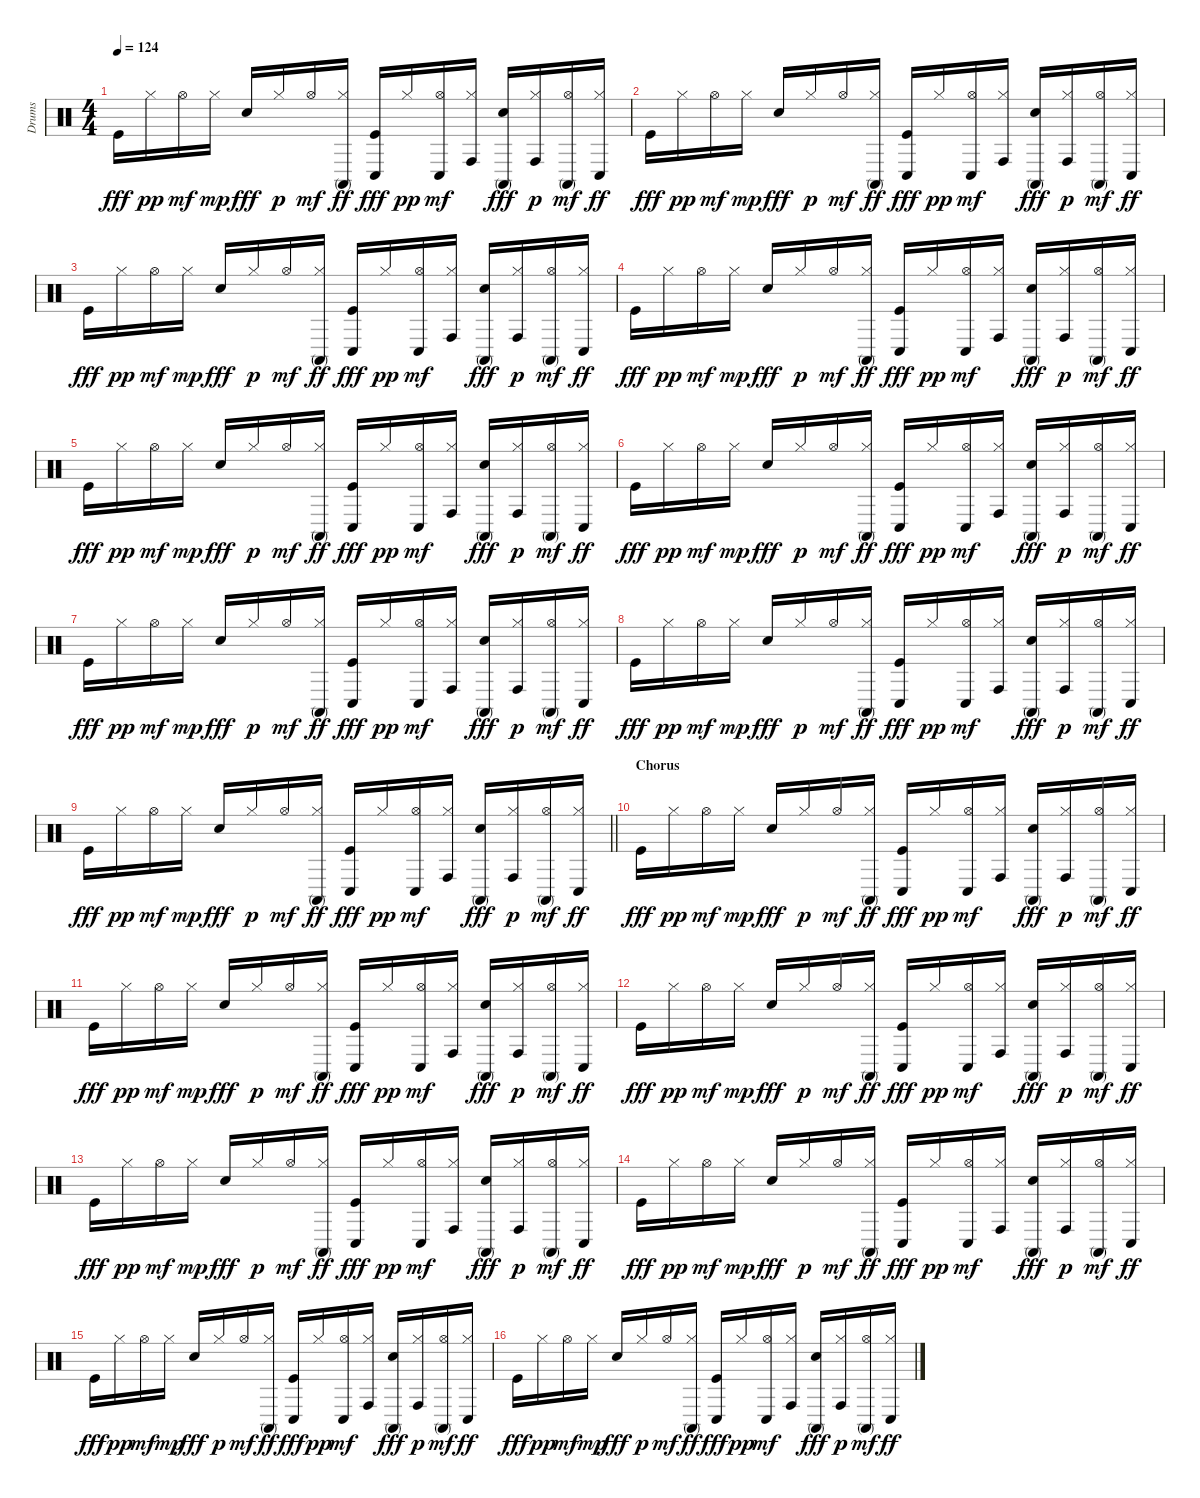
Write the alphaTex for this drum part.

\track ("Drums" "Drums") {instrument percussion}
\staff {score}
\articulation defaults
\ts (4 4)
\tempo 124
\clef neutral
\ks c "Kick (hit)".16{dy fff} "Hi-Hat (closed)".16{dy pp} "Hi-Hat (open)".16{dy mf} "Hi-Hat (closed)".16{dy mp} "Electric Snare (hit)".16{dy fff} "Hi-Hat (closed)".16{dy p} "Hi-Hat (open)".16{dy mf}
("Conga high (mute)" "Hi-Hat (closed)").16{dy ff} ("Kick (hit)" "Conga low (hit)").16{dy fff} "Hi-Hat (closed)".16{dy pp} ("Conga low (hit)" "Hi-Hat (open)").16{dy mf} ("Conga high (hit)" "Hi-Hat (closed)").16 ("Electric Snare (hit)" "Conga high (mute)").16{dy fff} ("Conga high (hit)" "Hi-Hat (closed)").16{dy p} ("Conga high (mute)" "Hi-Hat (open)").16{dy mf} ("Conga low (hit)" "Hi-Hat (closed)").16{dy ff} |
"Kick (hit)".16{dy fff} "Hi-Hat (closed)".16{dy pp} "Hi-Hat (open)".16{dy mf} "Hi-Hat (closed)".16{dy mp} "Electric Snare (hit)".16{dy fff} "Hi-Hat (closed)".16{dy p} "Hi-Hat (open)".16{dy mf} ("Conga high (mute)" "Hi-Hat (closed)").16{dy ff} ("Kick (hit)" "Conga low (hit)").16{dy fff} "Hi-Hat (closed)".16{dy pp} ("Conga low (hit)" "Hi-Hat (open)").16{dy mf} ("Conga high (hit)" "Hi-Hat (closed)").16 ("Electric Snare (hit)" "Conga high (mute)").16{dy fff} ("Conga high (hit)" "Hi-Hat (closed)").16{dy p} ("Conga high (mute)" "Hi-Hat (open)").16{dy mf} ("Conga low (hit)" "Hi-Hat (closed)").16{dy ff} |
"Kick (hit)".16{dy fff} "Hi-Hat (closed)".16{dy pp} "Hi-Hat (open)".16{dy mf} "Hi-Hat (closed)".16{dy mp} "Electric Snare (hit)".16{dy fff} "Hi-Hat (closed)".16{dy p} "Hi-Hat (open)".16{dy mf} ("Conga high (mute)" "Hi-Hat (closed)").16{dy ff} ("Kick (hit)" "Conga low (hit)").16{dy fff} "Hi-Hat (closed)".16{dy pp} ("Conga low (hit)" "Hi-Hat (open)").16{dy mf} ("Conga high (hit)" "Hi-Hat (closed)").16 ("Electric Snare (hit)" "Conga high (mute)").16{dy fff} ("Conga high (hit)" "Hi-Hat (closed)").16{dy p} ("Conga high (mute)" "Hi-Hat (open)").16{dy mf} ("Conga low (hit)" "Hi-Hat (closed)").16{dy ff} |
"Kick (hit)".16{dy fff} "Hi-Hat (closed)".16{dy pp} "Hi-Hat (open)".16{dy mf} "Hi-Hat (closed)".16{dy mp} "Electric Snare (hit)".16{dy fff} "Hi-Hat (closed)".16{dy p} "Hi-Hat (open)".16{dy mf} ("Conga high (mute)" "Hi-Hat (closed)").16{dy ff} ("Kick (hit)" "Conga low (hit)").16{dy fff} "Hi-Hat (closed)".16{dy pp} ("Conga low (hit)" "Hi-Hat (open)").16{dy mf} ("Conga high (hit)" "Hi-Hat (closed)").16 ("Electric Snare (hit)" "Conga high (mute)").16{dy fff} ("Conga high (hit)" "Hi-Hat (closed)").16{dy p} ("Conga high (mute)" "Hi-Hat (open)").16{dy mf} ("Conga low (hit)" "Hi-Hat (closed)").16{dy ff} |
"Kick (hit)".16{dy fff} "Hi-Hat (closed)".16{dy pp} "Hi-Hat (open)".16{dy mf} "Hi-Hat (closed)".16{dy mp} "Electric Snare (hit)".16{dy fff} "Hi-Hat (closed)".16{dy p} "Hi-Hat (open)".16{dy mf} ("Conga high (mute)" "Hi-Hat (closed)").16{dy ff} ("Kick (hit)" "Conga low (hit)").16{dy fff} "Hi-Hat (closed)".16{dy pp} ("Conga low (hit)" "Hi-Hat (open)").16{dy mf} ("Conga high (hit)" "Hi-Hat (closed)").16 ("Electric Snare (hit)" "Conga high (mute)").16{dy fff} ("Conga high (hit)" "Hi-Hat (closed)").16{dy p} ("Conga high (mute)" "Hi-Hat (open)").16{dy mf} ("Conga low (hit)" "Hi-Hat (closed)").16{dy ff} |
"Kick (hit)".16{dy fff} "Hi-Hat (closed)".16{dy pp} "Hi-Hat (open)".16{dy mf} "Hi-Hat (closed)".16{dy mp} "Electric Snare (hit)".16{dy fff} "Hi-Hat (closed)".16{dy p} "Hi-Hat (open)".16{dy mf} ("Conga high (mute)" "Hi-Hat (closed)").16{dy ff} ("Kick (hit)" "Conga low (hit)").16{dy fff} "Hi-Hat (closed)".16{dy pp} ("Conga low (hit)" "Hi-Hat (open)").16{dy mf} ("Conga high (hit)" "Hi-Hat (closed)").16 ("Electric Snare (hit)" "Conga high (mute)").16{dy fff} ("Conga high (hit)" "Hi-Hat (closed)").16{dy p} ("Conga high (mute)" "Hi-Hat (open)").16{dy mf} ("Conga low (hit)" "Hi-Hat (closed)").16{dy ff} |
"Kick (hit)".16{dy fff} "Hi-Hat (closed)".16{dy pp} "Hi-Hat (open)".16{dy mf} "Hi-Hat (closed)".16{dy mp} "Electric Snare (hit)".16{dy fff} "Hi-Hat (closed)".16{dy p} "Hi-Hat (open)".16{dy mf} ("Conga high (mute)" "Hi-Hat (closed)").16{dy ff} ("Kick (hit)" "Conga low (hit)").16{dy fff} "Hi-Hat (closed)".16{dy pp} ("Conga low (hit)" "Hi-Hat (open)").16{dy mf} ("Conga high (hit)" "Hi-Hat (closed)").16 ("Electric Snare (hit)" "Conga high (mute)").16{dy fff} ("Conga high (hit)" "Hi-Hat (closed)").16{dy p} ("Conga high (mute)" "Hi-Hat (open)").16{dy mf} ("Conga low (hit)" "Hi-Hat (closed)").16{dy ff} |
"Kick (hit)".16{dy fff} "Hi-Hat (closed)".16{dy pp} "Hi-Hat (open)".16{dy mf} "Hi-Hat (closed)".16{dy mp} "Electric Snare (hit)".16{dy fff} "Hi-Hat (closed)".16{dy p} "Hi-Hat (open)".16{dy mf} ("Conga high (mute)" "Hi-Hat (closed)").16{dy ff} ("Kick (hit)" "Conga low (hit)").16{dy fff} "Hi-Hat (closed)".16{dy pp} ("Conga low (hit)" "Hi-Hat (open)").16{dy mf} ("Conga high (hit)" "Hi-Hat (closed)").16 ("Electric Snare (hit)" "Conga high (mute)").16{dy fff} ("Conga high (hit)" "Hi-Hat (closed)").16{dy p} ("Conga high (mute)" "Hi-Hat (open)").16{dy mf} ("Conga low (hit)" "Hi-Hat (closed)").16{dy ff} |
\barLineRight lightlight "Kick (hit)".16{dy fff} "Hi-Hat (closed)".16{dy pp} "Hi-Hat (open)".16{dy mf} "Hi-Hat (closed)".16{dy mp} "Electric Snare (hit)".16{dy fff} "Hi-Hat (closed)".16{dy p} "Hi-Hat (open)".16{dy mf}
("Conga high (mute)" "Hi-Hat (closed)").16{dy ff} ("Kick (hit)" "Conga low (hit)").16{dy fff} "Hi-Hat (closed)".16{dy pp} ("Conga low (hit)" "Hi-Hat (open)").16{dy mf} ("Conga high (hit)" "Hi-Hat (closed)").16 ("Electric Snare (hit)" "Conga high (mute)").16{dy fff} ("Conga high (hit)" "Hi-Hat (closed)").16{dy p} ("Conga high (mute)" "Hi-Hat (open)").16{dy mf} ("Conga low (hit)" "Hi-Hat (closed)").16{dy ff} |
\section ("" "Chorus")
"Kick (hit)".16{dy fff} "Hi-Hat (closed)".16{dy pp} "Hi-Hat (open)".16{dy mf} "Hi-Hat (closed)".16{dy mp} "Electric Snare (hit)".16{dy fff} "Hi-Hat (closed)".16{dy p} "Hi-Hat (open)".16{dy mf} ("Conga high (mute)" "Hi-Hat (closed)").16{dy ff} ("Kick (hit)" "Conga low (hit)").16{dy fff} "Hi-Hat (closed)".16{dy pp} ("Conga low (hit)" "Hi-Hat (open)").16{dy mf} ("Conga high (hit)" "Hi-Hat (closed)").16 ("Electric Snare (hit)" "Conga high (mute)").16{dy fff} ("Conga high (hit)" "Hi-Hat (closed)").16{dy p} ("Conga high (mute)" "Hi-Hat (open)").16{dy mf} ("Conga low (hit)" "Hi-Hat (closed)").16{dy ff} |
"Kick (hit)".16{dy fff} "Hi-Hat (closed)".16{dy pp} "Hi-Hat (open)".16{dy mf} "Hi-Hat (closed)".16{dy mp} "Electric Snare (hit)".16{dy fff} "Hi-Hat (closed)".16{dy p} "Hi-Hat (open)".16{dy mf} ("Conga high (mute)" "Hi-Hat (closed)").16{dy ff} ("Kick (hit)" "Conga low (hit)").16{dy fff} "Hi-Hat (closed)".16{dy pp} ("Conga low (hit)" "Hi-Hat (open)").16{dy mf} ("Conga high (hit)" "Hi-Hat (closed)").16 ("Electric Snare (hit)" "Conga high (mute)").16{dy fff} ("Conga high (hit)" "Hi-Hat (closed)").16{dy p} ("Conga high (mute)" "Hi-Hat (open)").16{dy mf} ("Conga low (hit)" "Hi-Hat (closed)").16{dy ff} |
"Kick (hit)".16{dy fff} "Hi-Hat (closed)".16{dy pp} "Hi-Hat (open)".16{dy mf} "Hi-Hat (closed)".16{dy mp} "Electric Snare (hit)".16{dy fff} "Hi-Hat (closed)".16{dy p} "Hi-Hat (open)".16{dy mf} ("Conga high (mute)" "Hi-Hat (closed)").16{dy ff} ("Kick (hit)" "Conga low (hit)").16{dy fff} "Hi-Hat (closed)".16{dy pp} ("Conga low (hit)" "Hi-Hat (open)").16{dy mf} ("Conga high (hit)" "Hi-Hat (closed)").16 ("Electric Snare (hit)" "Conga high (mute)").16{dy fff} ("Conga high (hit)" "Hi-Hat (closed)").16{dy p} ("Conga high (mute)" "Hi-Hat (open)").16{dy mf} ("Conga low (hit)" "Hi-Hat (closed)").16{dy ff} |
"Kick (hit)".16{dy fff} "Hi-Hat (closed)".16{dy pp} "Hi-Hat (open)".16{dy mf} "Hi-Hat (closed)".16{dy mp} "Electric Snare (hit)".16{dy fff} "Hi-Hat (closed)".16{dy p} "Hi-Hat (open)".16{dy mf} ("Conga high (mute)" "Hi-Hat (closed)").16{dy ff} ("Kick (hit)" "Conga low (hit)").16{dy fff} "Hi-Hat (closed)".16{dy pp} ("Conga low (hit)" "Hi-Hat (open)").16{dy mf} ("Conga high (hit)" "Hi-Hat (closed)").16 ("Electric Snare (hit)" "Conga high (mute)").16{dy fff} ("Conga high (hit)" "Hi-Hat (closed)").16{dy p} ("Conga high (mute)" "Hi-Hat (open)").16{dy mf} ("Conga low (hit)" "Hi-Hat (closed)").16{dy ff} |
"Kick (hit)".16{dy fff} "Hi-Hat (closed)".16{dy pp} "Hi-Hat (open)".16{dy mf} "Hi-Hat (closed)".16{dy mp} "Electric Snare (hit)".16{dy fff} "Hi-Hat (closed)".16{dy p} "Hi-Hat (open)".16{dy mf} ("Conga high (mute)" "Hi-Hat (closed)").16{dy ff} ("Kick (hit)" "Conga low (hit)").16{dy fff} "Hi-Hat (closed)".16{dy pp} ("Conga low (hit)" "Hi-Hat (open)").16{dy mf} ("Conga high (hit)" "Hi-Hat (closed)").16 ("Electric Snare (hit)" "Conga high (mute)").16{dy fff} ("Conga high (hit)" "Hi-Hat (closed)").16{dy p} ("Conga high (mute)" "Hi-Hat (open)").16{dy mf} ("Conga low (hit)" "Hi-Hat (closed)").16{dy ff} |
"Kick (hit)".16{dy fff} "Hi-Hat (closed)".16{dy pp} "Hi-Hat (open)".16{dy mf} "Hi-Hat (closed)".16{dy mp} "Electric Snare (hit)".16{dy fff} "Hi-Hat (closed)".16{dy p} "Hi-Hat (open)".16{dy mf} ("Conga high (mute)" "Hi-Hat (closed)").16{dy ff} ("Kick (hit)" "Conga low (hit)").16{dy fff} "Hi-Hat (closed)".16{dy pp} ("Conga low (hit)" "Hi-Hat (open)").16{dy mf} ("Conga high (hit)" "Hi-Hat (closed)").16 ("Electric Snare (hit)" "Conga high (mute)").16{dy fff} ("Conga high (hit)" "Hi-Hat (closed)").16{dy p} ("Conga high (mute)" "Hi-Hat (open)").16{dy mf} ("Conga low (hit)" "Hi-Hat (closed)").16{dy ff} |
"Kick (hit)".16{dy fff} "Hi-Hat (closed)".16{dy pp} "Hi-Hat (open)".16{dy mf} "Hi-Hat (closed)".16{dy mp} "Electric Snare (hit)".16{dy fff} "Hi-Hat (closed)".16{dy p} "Hi-Hat (open)".16{dy mf} ("Conga high (mute)" "Hi-Hat (closed)").16{dy ff} ("Kick (hit)" "Conga low (hit)").16{dy fff} "Hi-Hat (closed)".16{dy pp} ("Conga low (hit)" "Hi-Hat (open)").16{dy mf} ("Conga high (hit)" "Hi-Hat (closed)").16 ("Electric Snare (hit)" "Conga high (mute)").16{dy fff} ("Conga high (hit)" "Hi-Hat (closed)").16{dy p} ("Conga high (mute)" "Hi-Hat (open)").16{dy mf} ("Conga low (hit)" "Hi-Hat (closed)").16{dy ff}
